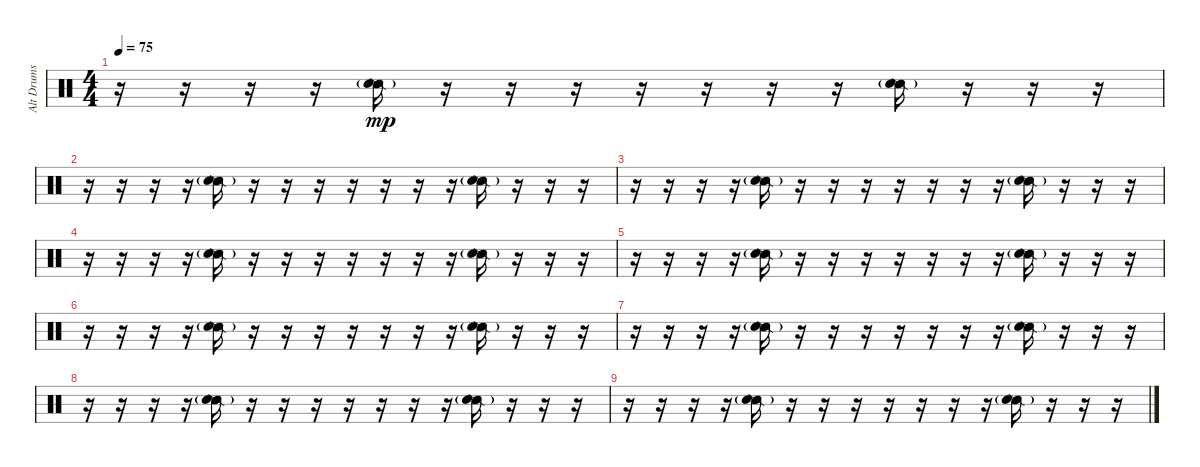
\track ("Alt Drums" "Alt Drums") {instrument percussion}
\staff {score}
\articulation defaults
\ts (4 4)
\tempo 75
\clef neutral
\ks c
r.16{dy mp} r.16 r.16 r.16 ("Snare (side stick) 2" "Hand Clap (hit)"{g}).16 r.16 r.16 r.16 r.16 r.16 r.16 r.16 ("Snare (side stick) 2" "Hand Clap (hit)"{g}).16 r.16 r.16 r.16 |
r.16 r.16 r.16 r.16 ("Snare (side stick) 2" "Hand Clap (hit)"{g}).16 r.16 r.16 r.16 r.16 r.16 r.16 r.16 ("Snare (side stick) 2" "Hand Clap (hit)"{g}).16 r.16 r.16 r.16 |
r.16 r.16 r.16 r.16 ("Snare (side stick) 2" "Hand Clap (hit)"{g}).16 r.16 r.16 r.16 r.16 r.16 r.16 r.16 ("Snare (side stick) 2" "Hand Clap (hit)"{g}).16 r.16 r.16 r.16 |
r.16 r.16 r.16 r.16 ("Snare (side stick) 2" "Hand Clap (hit)"{g}).16 r.16 r.16 r.16 r.16 r.16 r.16 r.16 ("Snare (side stick) 2" "Hand Clap (hit)"{g}).16 r.16 r.16 r.16 |
r.16 r.16 r.16 r.16 ("Snare (side stick) 2" "Hand Clap (hit)"{g}).16 r.16 r.16 r.16 r.16 r.16 r.16 r.16 ("Snare (side stick) 2" "Hand Clap (hit)"{g}).16 r.16 r.16 r.16 |
r.16 r.16 r.16 r.16 ("Snare (side stick) 2" "Hand Clap (hit)"{g}).16 r.16 r.16 r.16 r.16 r.16 r.16 r.16 ("Snare (side stick) 2" "Hand Clap (hit)"{g}).16 r.16 r.16 r.16 |
r.16 r.16 r.16 r.16 ("Snare (side stick) 2" "Hand Clap (hit)"{g}).16 r.16 r.16 r.16 r.16 r.16 r.16 r.16 ("Snare (side stick) 2" "Hand Clap (hit)"{g}).16 r.16 r.16 r.16 |
r.16 r.16 r.16 r.16 ("Snare (side stick) 2" "Hand Clap (hit)"{g}).16 r.16 r.16 r.16 r.16 r.16 r.16 r.16 ("Snare (side stick) 2" "Hand Clap (hit)"{g}).16 r.16 r.16 r.16 |
r.16 r.16 r.16 r.16 ("Snare (side stick) 2" "Hand Clap (hit)"{g}).16 r.16 r.16 r.16 r.16 r.16 r.16 r.16 ("Snare (side stick) 2" "Hand Clap (hit)"{g}).16 r.16 r.16 r.16
